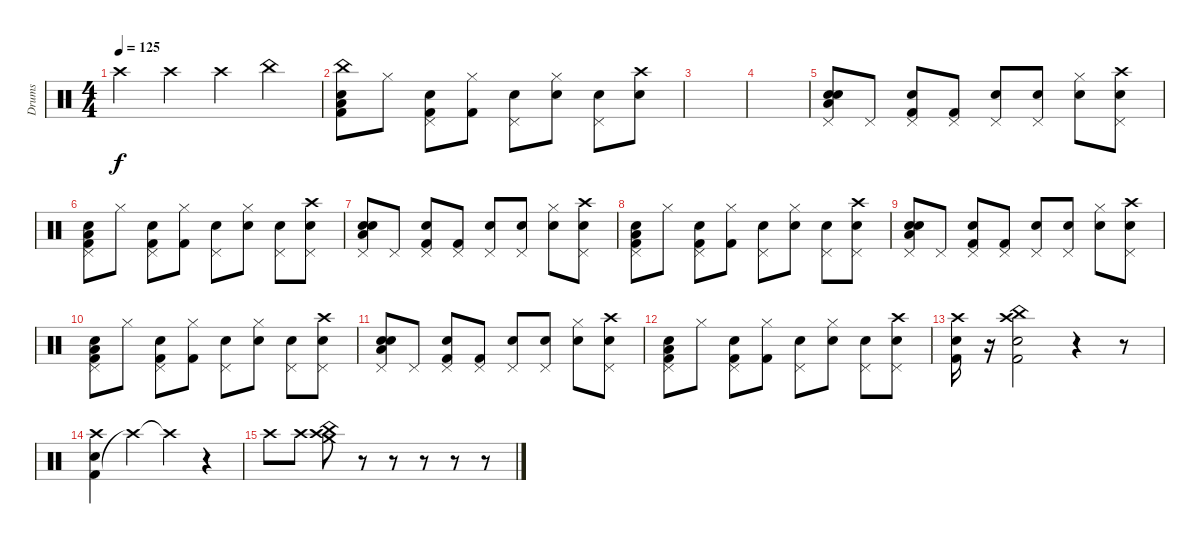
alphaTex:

\track ("Drums" "Drums") {instrument percussion}
\staff {score}
\articulation defaults
\ts (4 4)
\tempo 125
\clef neutral
\ks c "Crash high (hit)".4{dy f} "Crash high (hit)".4 "Crash high (hit)".4 "China (hit)".4
|
("Kick (hit) 2" "Snare (hit) 2" "Low Floor Tom (hit)" "China (hit)").8 "Hi-Hat (closed)".8 ("Snare (hit) 2" "Kick (hit) 2" "Pedal Hi-Hat (hit)").8 ("Kick (hit) 2" "Hi-Hat (closed)").8 ("Snare (hit) 2" "Pedal Hi-Hat (hit)").8 ("Snare (hit) 2" "Hi-Hat (closed)").8 ("Snare (hit) 2" "Pedal Hi-Hat (hit)").8 ("Snare (hit) 2" "Crash high (hit)").8 |
|
|
("Snare (hit) 2" "Snare (hit) 2" "Low Floor Tom (hit)" "Pedal Hi-Hat (hit)").8 "Pedal Hi-Hat (hit)".8 ("Snare (hit) 2" "Kick (hit) 2" "Pedal Hi-Hat (hit)").8 ("Kick (hit) 2" "Pedal Hi-Hat (hit)").8 ("Snare (hit) 2" "Pedal Hi-Hat (hit)").8 ("Snare (hit) 2" "Pedal Hi-Hat (hit)").8 ("Snare (hit) 2" "Hi-Hat (closed)").8 ("Snare (hit) 2" "Pedal Hi-Hat (hit)" "Crash high (hit)").8 |
("Kick (hit) 2" "Snare (hit) 2" "Low Floor Tom (hit)" "Pedal Hi-Hat (hit)").8 "Hi-Hat (closed)".8 ("Snare (hit) 2" "Kick (hit) 2" "Pedal Hi-Hat (hit)").8 ("Kick (hit) 2" "Hi-Hat (closed)").8 ("Snare (hit) 2" "Pedal Hi-Hat (hit)").8 ("Snare (hit) 2" "Hi-Hat (closed)").8 ("Snare (hit) 2" "Pedal Hi-Hat (hit)").8 ("Snare (hit) 2" "Pedal Hi-Hat (hit)" "Crash high (hit)").8 |
("Snare (hit) 2" "Snare (hit) 2" "Low Floor Tom (hit)" "Pedal Hi-Hat (hit)").8 "Pedal Hi-Hat (hit)".8 ("Snare (hit) 2" "Kick (hit) 2" "Pedal Hi-Hat (hit)").8 ("Kick (hit) 2" "Pedal Hi-Hat (hit)").8 ("Snare (hit) 2" "Pedal Hi-Hat (hit)").8 ("Snare (hit) 2" "Pedal Hi-Hat (hit)").8 ("Snare (hit) 2" "Hi-Hat (closed)").8 ("Snare (hit) 2" "Pedal Hi-Hat (hit)" "Crash high (hit)").8 |
("Kick (hit) 2" "Snare (hit) 2" "Low Floor Tom (hit)" "Pedal Hi-Hat (hit)").8 "Hi-Hat (closed)".8 ("Snare (hit) 2" "Kick (hit) 2" "Pedal Hi-Hat (hit)").8 ("Kick (hit) 2" "Hi-Hat (closed)").8 ("Snare (hit) 2" "Pedal Hi-Hat (hit)").8 ("Snare (hit) 2" "Hi-Hat (closed)").8 ("Snare (hit) 2" "Pedal Hi-Hat (hit)").8 ("Snare (hit) 2" "Pedal Hi-Hat (hit)" "Crash high (hit)").8 |
("Snare (hit) 2" "Snare (hit) 2" "Low Floor Tom (hit)" "Pedal Hi-Hat (hit)").8 "Pedal Hi-Hat (hit)".8 ("Snare (hit) 2" "Kick (hit) 2" "Pedal Hi-Hat (hit)").8 ("Kick (hit) 2" "Pedal Hi-Hat (hit)").8 ("Snare (hit) 2" "Pedal Hi-Hat (hit)").8 ("Snare (hit) 2" "Pedal Hi-Hat (hit)").8 ("Snare (hit) 2" "Hi-Hat (closed)").8 ("Snare (hit) 2" "Pedal Hi-Hat (hit)" "Crash high (hit)").8 |
("Kick (hit) 2" "Snare (hit) 2" "Low Floor Tom (hit)" "Pedal Hi-Hat (hit)").8 "Hi-Hat (closed)".8 ("Snare (hit) 2" "Kick (hit) 2" "Pedal Hi-Hat (hit)").8 ("Kick (hit) 2" "Hi-Hat (closed)").8 ("Snare (hit) 2" "Pedal Hi-Hat (hit)").8 ("Snare (hit) 2" "Hi-Hat (closed)").8 ("Snare (hit) 2" "Pedal Hi-Hat (hit)").8 ("Snare (hit) 2" "Pedal Hi-Hat (hit)" "Crash high (hit)").8 |
("Snare (hit) 2" "Snare (hit) 2" "Low Floor Tom (hit)" "Pedal Hi-Hat (hit)").8 "Pedal Hi-Hat (hit)".8 ("Snare (hit) 2" "Kick (hit) 2" "Pedal Hi-Hat (hit)").8 ("Kick (hit) 2" "Pedal Hi-Hat (hit)").8 ("Snare (hit) 2" "Pedal Hi-Hat (hit)").8 ("Snare (hit) 2" "Pedal Hi-Hat (hit)").8 ("Snare (hit) 2" "Hi-Hat (closed)").8 ("Snare (hit) 2" "Pedal Hi-Hat (hit)" "Crash high (hit)").8 |
("Kick (hit) 2" "Snare (hit) 2" "Low Floor Tom (hit)" "Pedal Hi-Hat (hit)").8 "Hi-Hat (closed)".8 ("Snare (hit) 2" "Kick (hit) 2" "Pedal Hi-Hat (hit)").8 ("Kick (hit) 2" "Hi-Hat (closed)").8 ("Snare (hit) 2" "Pedal Hi-Hat (hit)").8 ("Snare (hit) 2" "Hi-Hat (closed)").8 ("Snare (hit) 2" "Pedal Hi-Hat (hit)").8 ("Snare (hit) 2" "Pedal Hi-Hat (hit)" "Crash high (hit)").8 |
("Kick (hit) 2" "Snare (hit) 2" "Crash high (hit)").16 r.16 ("Kick (hit) 2" "Snare (hit) 2" "Crash high (hit)" "China (hit)").2 r.4 r.8 |
("Kick (hit) 2" "Snare (hit) 2" "Crash high (hit)").4 "Crash high (hit)"{t}.4 "Crash high (hit)"{t}.4 r.4 |
"Crash high (hit)".8 "Crash high (hit)".8 ("Crash high (hit)" "Crash medium (hit)" "China (hit)").8 r.8 r.8 r.8 r.8 r.8
